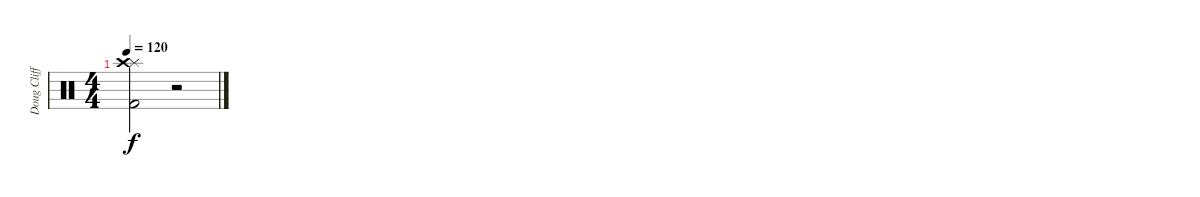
\track ("Doug Clifford" "Doug Cliff") {instrument percussion}
\staff {score}
\articulation defaults
\ts (4 4)
\tempo 120
\clef neutral
\ks c
("Splash (hit)"{t} "Crash high (hit)"{t} "Kick (hit) 2"{t}).2{dy f} r.2
